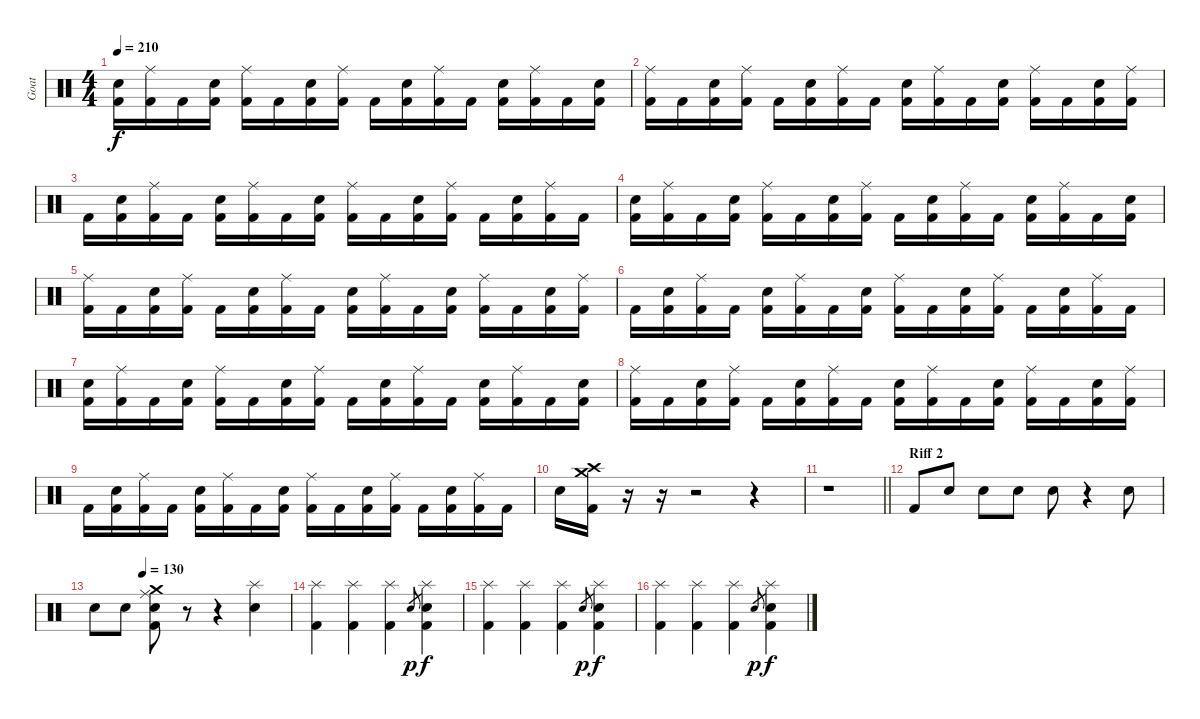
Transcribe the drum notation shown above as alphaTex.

\track ("Goat" "Goat") {instrument percussion}
\staff {score}
\articulation defaults
\ts (4 4)
\tempo 210
\clef neutral
\ks c
("Snare (hit) 2" "Kick (hit) 2").16{dy f} ("Ride (middle)" "Kick (hit) 2").16 "Kick (hit) 2".16 ("Snare (hit) 2" "Kick (hit) 2").16 ("Ride (middle)" "Kick (hit) 2").16 "Kick (hit) 2".16 ("Snare (hit) 2" "Kick (hit) 2").16 ("Ride (middle)" "Kick (hit) 2").16 "Kick (hit) 2".16 ("Snare (hit) 2" "Kick (hit) 2").16 ("Ride (middle)" "Kick (hit) 2").16 "Kick (hit) 2".16 ("Snare (hit) 2" "Kick (hit) 2").16 ("Ride (middle)" "Kick (hit) 2").16 "Kick (hit) 2".16 ("Snare (hit) 2" "Kick (hit) 2").16 |
("Ride (middle)" "Kick (hit) 2").16 "Kick (hit) 2".16 ("Snare (hit) 2" "Kick (hit) 2").16 ("Ride (middle)" "Kick (hit) 2").16 "Kick (hit) 2".16 ("Snare (hit) 2" "Kick (hit) 2").16 ("Ride (middle)" "Kick (hit) 2").16 "Kick (hit) 2".16 ("Snare (hit) 2" "Kick (hit) 2").16 ("Ride (middle)" "Kick (hit) 2").16 "Kick (hit) 2".16 ("Snare (hit) 2" "Kick (hit) 2").16 ("Ride (middle)" "Kick (hit) 2").16 "Kick (hit) 2".16 ("Snare (hit) 2" "Kick (hit) 2").16 ("Ride (middle)" "Kick (hit) 2").16 |
"Kick (hit) 2".16 ("Snare (hit) 2" "Kick (hit) 2").16 ("Ride (middle)" "Kick (hit) 2").16 "Kick (hit) 2".16 ("Snare (hit) 2" "Kick (hit) 2").16 ("Ride (middle)" "Kick (hit) 2").16 "Kick (hit) 2".16 ("Snare (hit) 2" "Kick (hit) 2").16 ("Ride (middle)" "Kick (hit) 2").16 "Kick (hit) 2".16 ("Snare (hit) 2" "Kick (hit) 2").16 ("Ride (middle)" "Kick (hit) 2").16 "Kick (hit) 2".16 ("Snare (hit) 2" "Kick (hit) 2").16 ("Ride (middle)" "Kick (hit) 2").16 "Kick (hit) 2".16 |
("Snare (hit) 2" "Kick (hit) 2").16 ("Ride (middle)" "Kick (hit) 2").16 "Kick (hit) 2".16 ("Snare (hit) 2" "Kick (hit) 2").16 ("Ride (middle)" "Kick (hit) 2").16 "Kick (hit) 2".16 ("Snare (hit) 2" "Kick (hit) 2").16 ("Ride (middle)" "Kick (hit) 2").16 "Kick (hit) 2".16 ("Snare (hit) 2" "Kick (hit) 2").16 ("Ride (middle)" "Kick (hit) 2").16 "Kick (hit) 2".16 ("Snare (hit) 2" "Kick (hit) 2").16 ("Ride (middle)" "Kick (hit) 2").16 "Kick (hit) 2".16 ("Snare (hit) 2" "Kick (hit) 2").16 |
("Ride (middle)" "Kick (hit) 2").16 "Kick (hit) 2".16 ("Snare (hit) 2" "Kick (hit) 2").16 ("Ride (middle)" "Kick (hit) 2").16 "Kick (hit) 2".16 ("Snare (hit) 2" "Kick (hit) 2").16 ("Ride (middle)" "Kick (hit) 2").16 "Kick (hit) 2".16 ("Snare (hit) 2" "Kick (hit) 2").16 ("Ride (middle)" "Kick (hit) 2").16 "Kick (hit) 2".16 ("Snare (hit) 2" "Kick (hit) 2").16 ("Ride (middle)" "Kick (hit) 2").16 "Kick (hit) 2".16 ("Snare (hit) 2" "Kick (hit) 2").16 ("Ride (middle)" "Kick (hit) 2").16 |
"Kick (hit) 2".16 ("Snare (hit) 2" "Kick (hit) 2").16 ("Ride (middle)" "Kick (hit) 2").16 "Kick (hit) 2".16 ("Snare (hit) 2" "Kick (hit) 2").16 ("Ride (middle)" "Kick (hit) 2").16 "Kick (hit) 2".16 ("Snare (hit) 2" "Kick (hit) 2").16 ("Ride (middle)" "Kick (hit) 2").16 "Kick (hit) 2".16 ("Snare (hit) 2" "Kick (hit) 2").16 ("Ride (middle)" "Kick (hit) 2").16 "Kick (hit) 2".16 ("Snare (hit) 2" "Kick (hit) 2").16 ("Ride (middle)" "Kick (hit) 2").16 "Kick (hit) 2".16 |
("Snare (hit) 2" "Kick (hit) 2").16 ("Ride (middle)" "Kick (hit) 2").16 "Kick (hit) 2".16 ("Snare (hit) 2" "Kick (hit) 2").16 ("Ride (middle)" "Kick (hit) 2").16 "Kick (hit) 2".16 ("Snare (hit) 2" "Kick (hit) 2").16 ("Ride (middle)" "Kick (hit) 2").16 "Kick (hit) 2".16 ("Snare (hit) 2" "Kick (hit) 2").16 ("Ride (middle)" "Kick (hit) 2").16 "Kick (hit) 2".16 ("Snare (hit) 2" "Kick (hit) 2").16 ("Ride (middle)" "Kick (hit) 2").16 "Kick (hit) 2".16 ("Snare (hit) 2" "Kick (hit) 2").16 |
("Ride (middle)" "Kick (hit) 2").16 "Kick (hit) 2".16 ("Snare (hit) 2" "Kick (hit) 2").16 ("Ride (middle)" "Kick (hit) 2").16 "Kick (hit) 2".16 ("Snare (hit) 2" "Kick (hit) 2").16 ("Ride (middle)" "Kick (hit) 2").16 "Kick (hit) 2".16 ("Snare (hit) 2" "Kick (hit) 2").16 ("Ride (middle)" "Kick (hit) 2").16 "Kick (hit) 2".16 ("Snare (hit) 2" "Kick (hit) 2").16 ("Ride (middle)" "Kick (hit) 2").16 "Kick (hit) 2".16 ("Snare (hit) 2" "Kick (hit) 2").16 ("Ride (middle)" "Kick (hit) 2").16 |
"Kick (hit) 2".16 ("Snare (hit) 2" "Kick (hit) 2").16 ("Ride (middle)" "Kick (hit) 2").16 "Kick (hit) 2".16 ("Snare (hit) 2" "Kick (hit) 2").16 ("Ride (middle)" "Kick (hit) 2").16 "Kick (hit) 2".16 ("Snare (hit) 2" "Kick (hit) 2").16 ("Ride (middle)" "Kick (hit) 2").16 "Kick (hit) 2".16 ("Snare (hit) 2" "Kick (hit) 2").16 ("Ride (middle)" "Kick (hit) 2").16 "Kick (hit) 2".16 ("Snare (hit) 2" "Kick (hit) 2").16 ("Ride (middle)" "Kick (hit) 2").16 "Kick (hit) 2".16 |
"Snare (hit) 2".16 ("Crash medium (hit)" "Crash high (hit)" "Kick (hit) 2").16 r.16 r.16 r.2 r.4 |
\barLineRight lightlight
r.1 |
\section ("" "Riff 2")
"Kick (hit) 2".8 "Snare (hit) 2".8 "Snare (hit) 2".8 "Snare (hit) 2".8 "Snare (hit) 2".8 r.4 "Snare (hit) 2".8 |
\tempo (130 0.25)
"Snare (hit) 2".8 "Snare (hit) 2".8 ("Crash medium (hit)" "Ride (middle)" "Snare (hit) 2" "Kick (hit) 2").8 r.8 r.4 ("Splash (hit)" "Snare (hit) 2").4 |
("Splash (hit)" "Kick (hit) 2").4 ("Splash (hit)" "Kick (hit) 2").4 ("Splash (hit)" "Kick (hit) 2").4 "Snare (hit) 2".8{gr dy p} ("Splash (hit)" "Snare (hit) 2" "Kick (hit) 2").4{dy f} |
("Splash (hit)" "Kick (hit) 2").4 ("Splash (hit)" "Kick (hit) 2").4 ("Splash (hit)" "Kick (hit) 2").4 "Snare (hit) 2".8{gr dy p} ("Splash (hit)" "Snare (hit) 2" "Kick (hit) 2").4{dy f} |
("Splash (hit)" "Kick (hit) 2").4 ("Splash (hit)" "Kick (hit) 2").4 ("Splash (hit)" "Kick (hit) 2").4 "Snare (hit) 2".8{gr dy p} ("Splash (hit)" "Snare (hit) 2" "Kick (hit) 2").4{dy f}
